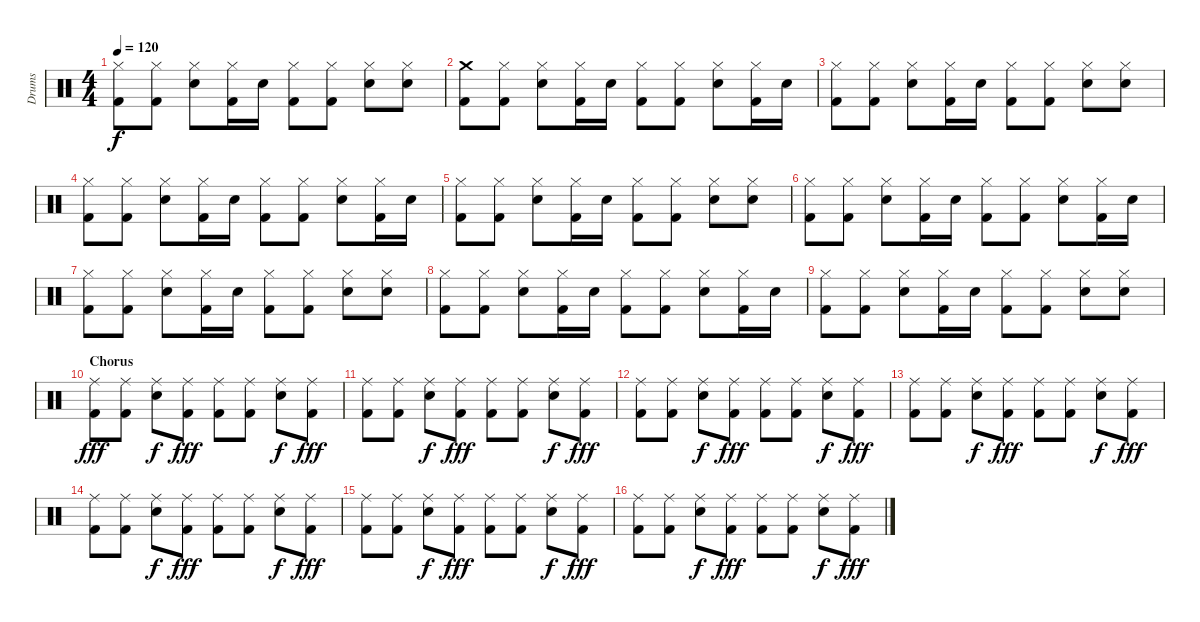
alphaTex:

\track ("Drums" "Drums") {instrument percussion}
\staff {score}
\articulation defaults
\ts (4 4)
\tempo 120
\clef neutral
\ks c
("Hi-Hat (closed)" "Kick (hit) 2").8{dy f} ("Hi-Hat (closed)" "Kick (hit) 2").8 ("Hi-Hat (closed)" "Electric Snare (hit)").8 ("Hi-Hat (closed)" "Kick (hit) 2").16 "Electric Snare (hit)".16 ("Hi-Hat (closed)" "Kick (hit) 2").8 ("Hi-Hat (closed)" "Kick (hit) 2").8 ("Hi-Hat (closed)" "Electric Snare (hit)").8 ("Hi-Hat (closed)" "Electric Snare (hit)").8 |
("Crash medium (hit)" "Kick (hit) 2").8 ("Hi-Hat (closed)" "Kick (hit) 2").8 ("Hi-Hat (closed)" "Electric Snare (hit)").8 ("Hi-Hat (closed)" "Kick (hit) 2").16 "Electric Snare (hit)".16 ("Hi-Hat (closed)" "Kick (hit) 2").8 ("Hi-Hat (closed)" "Kick (hit) 2").8 ("Hi-Hat (closed)" "Electric Snare (hit)").8 ("Hi-Hat (closed)" "Kick (hit) 2").16 "Electric Snare (hit)".16 |
("Hi-Hat (closed)" "Kick (hit) 2").8 ("Hi-Hat (closed)" "Kick (hit) 2").8 ("Hi-Hat (closed)" "Electric Snare (hit)").8 ("Hi-Hat (closed)" "Kick (hit) 2").16 "Electric Snare (hit)".16 ("Hi-Hat (closed)" "Kick (hit) 2").8 ("Hi-Hat (closed)" "Kick (hit) 2").8 ("Hi-Hat (closed)" "Electric Snare (hit)").8 ("Hi-Hat (closed)" "Electric Snare (hit)").8 |
("Hi-Hat (closed)" "Kick (hit) 2").8 ("Hi-Hat (closed)" "Kick (hit) 2").8 ("Hi-Hat (closed)" "Electric Snare (hit)").8 ("Hi-Hat (closed)" "Kick (hit) 2").16 "Electric Snare (hit)".16 ("Hi-Hat (closed)" "Kick (hit) 2").8 ("Hi-Hat (closed)" "Kick (hit) 2").8 ("Hi-Hat (closed)" "Electric Snare (hit)").8 ("Hi-Hat (closed)" "Kick (hit) 2").16 "Electric Snare (hit)".16 |
("Hi-Hat (closed)" "Kick (hit) 2").8 ("Hi-Hat (closed)" "Kick (hit) 2").8 ("Hi-Hat (closed)" "Electric Snare (hit)").8 ("Hi-Hat (closed)" "Kick (hit) 2").16 "Electric Snare (hit)".16 ("Hi-Hat (closed)" "Kick (hit) 2").8 ("Hi-Hat (closed)" "Kick (hit) 2").8 ("Hi-Hat (closed)" "Electric Snare (hit)").8 ("Hi-Hat (closed)" "Electric Snare (hit)").8 |
("Hi-Hat (closed)" "Kick (hit) 2").8 ("Hi-Hat (closed)" "Kick (hit) 2").8 ("Hi-Hat (closed)" "Electric Snare (hit)").8 ("Hi-Hat (closed)" "Kick (hit) 2").16 "Electric Snare (hit)".16 ("Hi-Hat (closed)" "Kick (hit) 2").8 ("Hi-Hat (closed)" "Kick (hit) 2").8 ("Hi-Hat (closed)" "Electric Snare (hit)").8 ("Hi-Hat (closed)" "Kick (hit) 2").16 "Electric Snare (hit)".16 |
("Hi-Hat (closed)" "Kick (hit) 2").8 ("Hi-Hat (closed)" "Kick (hit) 2").8 ("Hi-Hat (closed)" "Electric Snare (hit)").8 ("Hi-Hat (closed)" "Kick (hit) 2").16 "Electric Snare (hit)".16 ("Hi-Hat (closed)" "Kick (hit) 2").8 ("Hi-Hat (closed)" "Kick (hit) 2").8 ("Hi-Hat (closed)" "Electric Snare (hit)").8 ("Hi-Hat (closed)" "Electric Snare (hit)").8 |
("Hi-Hat (closed)" "Kick (hit) 2").8 ("Hi-Hat (closed)" "Kick (hit) 2").8 ("Hi-Hat (closed)" "Electric Snare (hit)").8 ("Hi-Hat (closed)" "Kick (hit) 2").16 "Electric Snare (hit)".16 ("Hi-Hat (closed)" "Kick (hit) 2").8 ("Hi-Hat (closed)" "Kick (hit) 2").8 ("Hi-Hat (closed)" "Electric Snare (hit)").8 ("Hi-Hat (closed)" "Kick (hit) 2").16 "Electric Snare (hit)".16 |
("Hi-Hat (closed)" "Kick (hit) 2").8 ("Hi-Hat (closed)" "Kick (hit) 2").8 ("Hi-Hat (closed)" "Electric Snare (hit)").8 ("Hi-Hat (closed)" "Kick (hit) 2").16 "Electric Snare (hit)".16 ("Hi-Hat (closed)" "Kick (hit) 2").8 ("Hi-Hat (closed)" "Kick (hit) 2").8 ("Hi-Hat (closed)" "Electric Snare (hit)").8 ("Hi-Hat (closed)" "Electric Snare (hit)").8 |
\section ("" "Chorus")
("Ride (middle)" "Kick (hit) 2").8{dy fff} ("Ride (middle)" "Kick (hit) 2").8 ("Ride (middle)" "Electric Snare (hit)").8{dy f} ("Ride (middle)" "Kick (hit) 2").8{dy fff} ("Ride (middle)" "Kick (hit) 2").8 ("Ride (middle)" "Kick (hit) 2").8 ("Ride (middle)" "Electric Snare (hit)").8{dy f} ("Ride (middle)" "Kick (hit) 2").8{dy fff} |
("Ride (middle)" "Kick (hit) 2").8 ("Ride (middle)" "Kick (hit) 2").8 ("Ride (middle)" "Electric Snare (hit)").8{dy f} ("Ride (middle)" "Kick (hit) 2").8{dy fff} ("Ride (middle)" "Kick (hit) 2").8 ("Ride (middle)" "Kick (hit) 2").8 ("Ride (middle)" "Electric Snare (hit)").8{dy f} ("Ride (middle)" "Kick (hit) 2").8{dy fff} |
("Ride (middle)" "Kick (hit) 2").8 ("Ride (middle)" "Kick (hit) 2").8 ("Ride (middle)" "Electric Snare (hit)").8{dy f} ("Ride (middle)" "Kick (hit) 2").8{dy fff} ("Ride (middle)" "Kick (hit) 2").8 ("Ride (middle)" "Kick (hit) 2").8 ("Ride (middle)" "Electric Snare (hit)").8{dy f} ("Ride (middle)" "Kick (hit) 2").8{dy fff} |
("Ride (middle)" "Kick (hit) 2").8 ("Ride (middle)" "Kick (hit) 2").8 ("Ride (middle)" "Electric Snare (hit)").8{dy f} ("Ride (middle)" "Kick (hit) 2").8{dy fff} ("Ride (middle)" "Kick (hit) 2").8 ("Ride (middle)" "Kick (hit) 2").8 ("Ride (middle)" "Electric Snare (hit)").8{dy f} ("Ride (middle)" "Kick (hit) 2").8{dy fff} |
("Ride (middle)" "Kick (hit) 2").8 ("Ride (middle)" "Kick (hit) 2").8 ("Ride (middle)" "Electric Snare (hit)").8{dy f} ("Ride (middle)" "Kick (hit) 2").8{dy fff} ("Ride (middle)" "Kick (hit) 2").8 ("Ride (middle)" "Kick (hit) 2").8 ("Ride (middle)" "Electric Snare (hit)").8{dy f} ("Ride (middle)" "Kick (hit) 2").8{dy fff} |
("Ride (middle)" "Kick (hit) 2").8 ("Ride (middle)" "Kick (hit) 2").8 ("Ride (middle)" "Electric Snare (hit)").8{dy f} ("Ride (middle)" "Kick (hit) 2").8{dy fff} ("Ride (middle)" "Kick (hit) 2").8 ("Ride (middle)" "Kick (hit) 2").8 ("Ride (middle)" "Electric Snare (hit)").8{dy f} ("Ride (middle)" "Kick (hit) 2").8{dy fff} |
("Ride (middle)" "Kick (hit) 2").8 ("Ride (middle)" "Kick (hit) 2").8 ("Ride (middle)" "Electric Snare (hit)").8{dy f} ("Ride (middle)" "Kick (hit) 2").8{dy fff} ("Ride (middle)" "Kick (hit) 2").8 ("Ride (middle)" "Kick (hit) 2").8 ("Ride (middle)" "Electric Snare (hit)").8{dy f} ("Ride (middle)" "Kick (hit) 2").8{dy fff}
